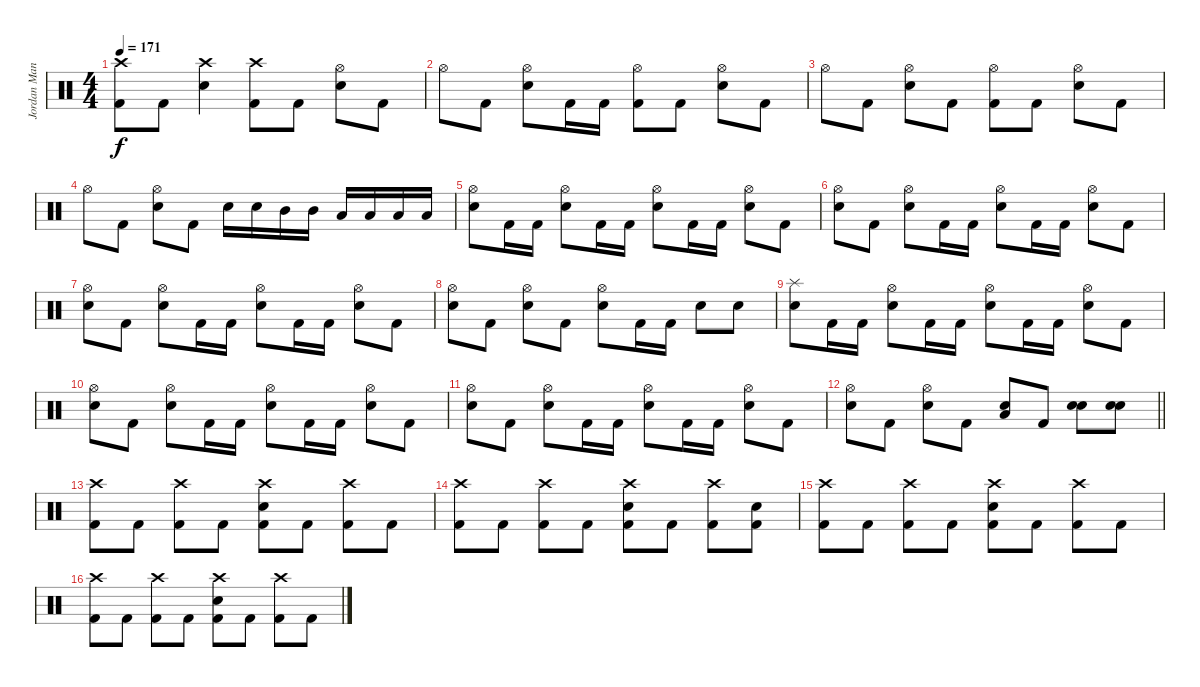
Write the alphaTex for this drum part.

\track ("Jordan Mancino" "Jordan Man") {instrument percussion}
\staff {score}
\articulation defaults
\ts (4 4)
\tempo 171
\clef neutral
\ks c
("Crash high (hit)" "Kick (hit) 2").8{dy f} "Kick (hit) 2".8 ("Crash high (hit)" "Electric Snare (hit)").4 ("Crash high (hit)" "Kick (hit) 2").8 "Kick (hit) 2".8 ("Hi-Hat (open)" "Electric Snare (hit)").8 "Kick (hit) 2".8 |
"Hi-Hat (open)".8 "Kick (hit) 2".8 ("Hi-Hat (open)" "Electric Snare (hit)").8 "Kick (hit) 2".16 "Kick (hit) 2".16 ("Hi-Hat (open)" "Kick (hit) 2").8 "Kick (hit) 2".8 ("Hi-Hat (open)" "Electric Snare (hit)").8 "Kick (hit) 2".8 |
"Hi-Hat (open)".8 "Kick (hit) 2".8 ("Hi-Hat (open)" "Electric Snare (hit)").8 "Kick (hit) 2".8 ("Hi-Hat (open)" "Kick (hit) 2").8 "Kick (hit) 2".8 ("Hi-Hat (open)" "Electric Snare (hit)").8 "Kick (hit) 2".8 |
"Hi-Hat (open)".8 "Kick (hit) 2".8 ("Hi-Hat (open)" "Electric Snare (hit)").8 "Kick (hit) 2".8 "Electric Snare (hit)".16 "Electric Snare (hit)".16 "Mid Tom (hit)".16 "Mid Tom (hit)".16 "Low Tom (hit)".16 "Low Tom (hit)".16 "Low Floor Tom (hit)".16 "Low Floor Tom (hit)".16 |
("Hi-Hat (open)" "Electric Snare (hit)").8 "Kick (hit) 2".16 "Kick (hit) 2".16 ("Hi-Hat (open)" "Electric Snare (hit)").8 "Kick (hit) 2".16 "Kick (hit) 2".16 ("Hi-Hat (open)" "Electric Snare (hit)").8 "Kick (hit) 2".16 "Kick (hit) 2".16 ("Hi-Hat (open)" "Electric Snare (hit)").8 "Kick (hit) 2".8 |
("Hi-Hat (open)" "Electric Snare (hit)").8 "Kick (hit) 2".8 ("Hi-Hat (open)" "Electric Snare (hit)").8 "Kick (hit) 2".16 "Kick (hit) 2".16 ("Hi-Hat (open)" "Electric Snare (hit)").8 "Kick (hit) 2".16 "Kick (hit) 2".16 ("Hi-Hat (open)" "Electric Snare (hit)").8 "Kick (hit) 2".8 |
("Hi-Hat (open)" "Electric Snare (hit)").8 "Kick (hit) 2".8 ("Hi-Hat (open)" "Electric Snare (hit)").8 "Kick (hit) 2".16 "Kick (hit) 2".16 ("Hi-Hat (open)" "Electric Snare (hit)").8 "Kick (hit) 2".16 "Kick (hit) 2".16 ("Hi-Hat (open)" "Electric Snare (hit)").8 "Kick (hit) 2".8 |
("Hi-Hat (open)" "Electric Snare (hit)").8 "Kick (hit) 2".8 ("Hi-Hat (open)" "Electric Snare (hit)").8 "Kick (hit) 2".8 ("Hi-Hat (open)" "Electric Snare (hit)").8 "Kick (hit) 2".16 "Kick (hit) 2".16 "Electric Snare (hit)".8 "Electric Snare (hit)".8 |
("Splash (hit)" "Electric Snare (hit)").8 "Kick (hit) 2".16 "Kick (hit) 2".16 ("Hi-Hat (open)" "Electric Snare (hit)").8 "Kick (hit) 2".16 "Kick (hit) 2".16 ("Hi-Hat (open)" "Electric Snare (hit)").8 "Kick (hit) 2".16 "Kick (hit) 2".16 ("Hi-Hat (open)" "Electric Snare (hit)").8 "Kick (hit) 2".8 |
("Hi-Hat (open)" "Electric Snare (hit)").8 "Kick (hit) 2".8 ("Hi-Hat (open)" "Electric Snare (hit)").8 "Kick (hit) 2".16 "Kick (hit) 2".16 ("Hi-Hat (open)" "Electric Snare (hit)").8 "Kick (hit) 2".16 "Kick (hit) 2".16 ("Hi-Hat (open)" "Electric Snare (hit)").8 "Kick (hit) 2".8 |
("Hi-Hat (open)" "Electric Snare (hit)").8 "Kick (hit) 2".8 ("Hi-Hat (open)" "Electric Snare (hit)").8 "Kick (hit) 2".16 "Kick (hit) 2".16 ("Hi-Hat (open)" "Electric Snare (hit)").8 "Kick (hit) 2".16 "Kick (hit) 2".16 ("Hi-Hat (open)" "Electric Snare (hit)").8 "Kick (hit) 2".8 |
\barLineRight lightlight
("Hi-Hat (open)" "Electric Snare (hit)").8 "Kick (hit) 2".8 ("Hi-Hat (open)" "Electric Snare (hit)").8 "Kick (hit) 2".8 ("Low Floor Tom (hit)" "Snare (hit) 2").8 "Kick (hit) 2".8 ("Electric Snare (hit)" "Electric Snare (hit)").8 ("Electric Snare (hit)" "Electric Snare (hit)").8 |
\section ("" "")
("Crash high (hit)" "Kick (hit) 2").8 "Kick (hit) 2".8 ("Crash high (hit)" "Kick (hit) 2").8 "Kick (hit) 2".8 ("Crash high (hit)" "Electric Snare (hit)" "Kick (hit) 2").8 "Kick (hit) 2".8 ("Crash high (hit)" "Kick (hit) 2").8 "Kick (hit) 2".8 |
("Crash high (hit)" "Kick (hit) 2").8 "Kick (hit) 2".8 ("Crash high (hit)" "Kick (hit) 2").8 "Kick (hit) 2".8 ("Crash high (hit)" "Electric Snare (hit)" "Kick (hit) 2").8 "Kick (hit) 2".8 ("Crash high (hit)" "Kick (hit) 2").8 ("Electric Snare (hit)" "Kick (hit) 2").8 |
("Crash high (hit)" "Kick (hit) 2").8 "Kick (hit) 2".8 ("Crash high (hit)" "Kick (hit) 2").8 "Kick (hit) 2".8 ("Crash high (hit)" "Electric Snare (hit)" "Kick (hit) 2").8 "Kick (hit) 2".8 ("Crash high (hit)" "Kick (hit) 2").8 "Kick (hit) 2".8 |
("Crash high (hit)" "Kick (hit) 2").8 "Kick (hit) 2".8 ("Crash high (hit)" "Kick (hit) 2").8 "Kick (hit) 2".8 ("Crash high (hit)" "Electric Snare (hit)" "Kick (hit) 2").8 "Kick (hit) 2".8 ("Crash high (hit)" "Kick (hit) 2").8 "Kick (hit) 2".8
